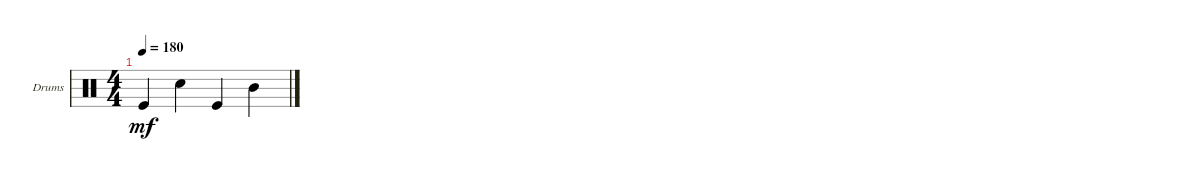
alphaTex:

\defaultSystemsLayout 4
\bracketExtendMode groupsimilarinstruments
\firstSystemTrackNameOrientation horizontal
\otherSystemsTrackNameOrientation horizontal
\track ("Drumkit" "Drums") {instrument percussion}
\staff {score}
\articulation defaults
\ts (4 4)
\tempo 180
\clef neutral
\scale
0.472222
\ks c "Kick (hit)".4{dy mf} "Snare (hit) 2".4 "Kick (hit)".4 "Mid Tom (hit)".4
|
\scale
0.263889 |
\scale
0.263889 |
\scale
0.333333 |
\scale
0.333333 |
\scale
0.333333 |
\scale
0.333333 |
\scale
0.333333 |
\scale
0.333333 |
\scale
0.333333 |
\scale
0.333333 |
\scale
0.333333 |
\scale
0.333333 |
\scale
0.333333 |
\scale
0.333333
